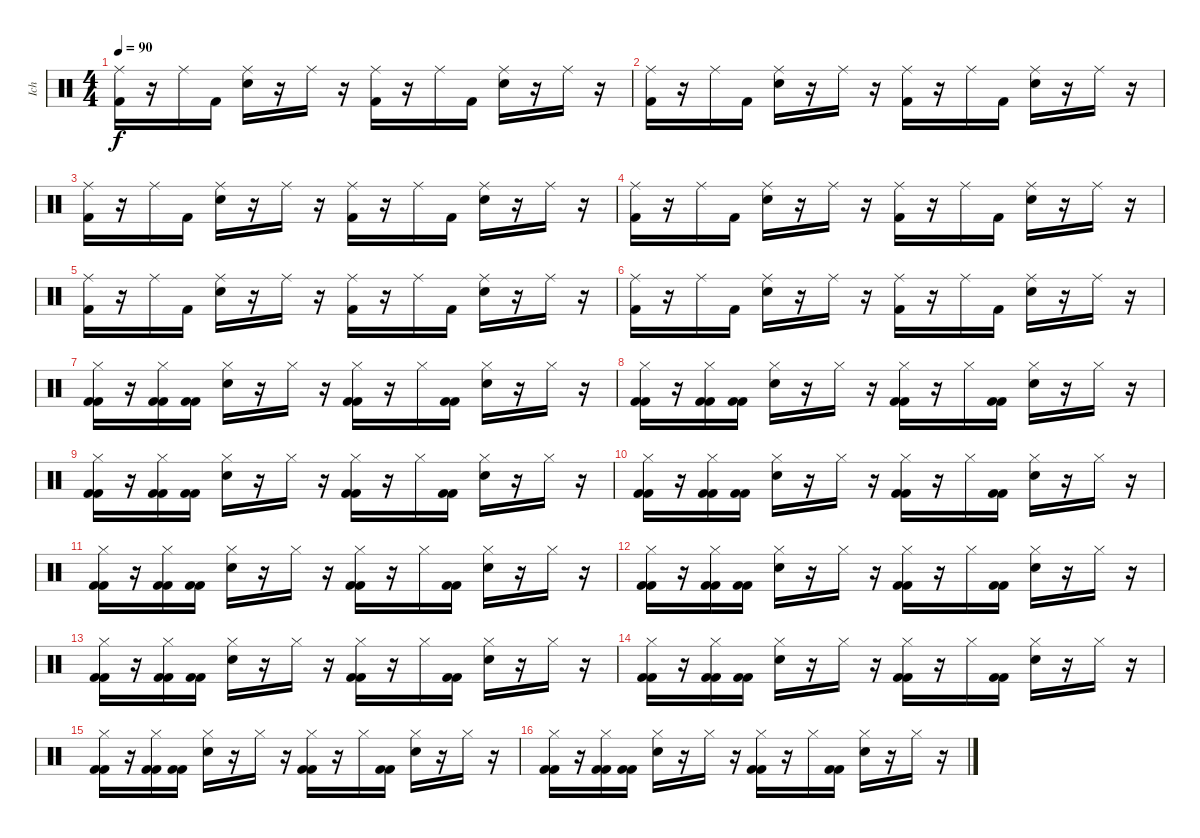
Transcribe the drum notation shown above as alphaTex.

\track ("Ich" "Ich") {instrument percussion}
\staff {score}
\articulation defaults
\ts (4 4)
\tempo 90
\clef neutral
\ks c
("Ride (middle)" "Kick (hit) 2").16{dy f} r.16 "Ride (middle)".16 "Kick (hit) 2".16 ("Ride (middle)" "Snare (hit) 2").16 r.16 "Ride (middle)".16 r.16 ("Ride (middle)" "Kick (hit) 2").16 r.16 "Ride (middle)".16 "Kick (hit) 2".16 ("Ride (middle)" "Snare (hit) 2").16 r.16 "Ride (middle)".16 r.16 |
("Ride (middle)" "Kick (hit) 2").16 r.16 "Ride (middle)".16 "Kick (hit) 2".16 ("Ride (middle)" "Snare (hit) 2").16 r.16 "Ride (middle)".16 r.16 ("Ride (middle)" "Kick (hit) 2").16 r.16 "Ride (middle)".16 "Kick (hit) 2".16 ("Ride (middle)" "Snare (hit) 2").16 r.16 "Ride (middle)".16 r.16 |
("Ride (middle)" "Kick (hit) 2").16 r.16 "Ride (middle)".16 "Kick (hit) 2".16 ("Ride (middle)" "Snare (hit) 2").16 r.16 "Ride (middle)".16 r.16 ("Ride (middle)" "Kick (hit) 2").16 r.16 "Ride (middle)".16 "Kick (hit) 2".16 ("Ride (middle)" "Snare (hit) 2").16 r.16 "Ride (middle)".16 r.16 |
("Ride (middle)" "Kick (hit) 2").16 r.16 "Ride (middle)".16 "Kick (hit) 2".16 ("Ride (middle)" "Snare (hit) 2").16 r.16 "Ride (middle)".16 r.16 ("Ride (middle)" "Kick (hit) 2").16 r.16 "Ride (middle)".16 "Kick (hit) 2".16 ("Ride (middle)" "Snare (hit) 2").16 r.16 "Ride (middle)".16 r.16 |
("Ride (middle)" "Kick (hit) 2").16 r.16 "Ride (middle)".16 "Kick (hit) 2".16 ("Ride (middle)" "Snare (hit) 2").16 r.16 "Ride (middle)".16 r.16 ("Ride (middle)" "Kick (hit) 2").16 r.16 "Ride (middle)".16 "Kick (hit) 2".16 ("Ride (middle)" "Snare (hit) 2").16 r.16 "Ride (middle)".16 r.16 |
("Ride (middle)" "Kick (hit) 2").16 r.16 "Ride (middle)".16 "Kick (hit) 2".16 ("Ride (middle)" "Snare (hit) 2").16 r.16 "Ride (middle)".16 r.16 ("Ride (middle)" "Kick (hit) 2").16 r.16 "Ride (middle)".16 "Kick (hit) 2".16 ("Ride (middle)" "Snare (hit) 2").16 r.16 "Ride (middle)".16 r.16 |
("Hi-Hat (closed)" "Kick (hit) 2" "Kick (hit) 2").16 r.16 ("Hi-Hat (closed)" "Kick (hit) 2" "Kick (hit) 2").16 ("Kick (hit) 2" "Kick (hit) 2").16 ("Hi-Hat (closed)" "Snare (hit) 2").16 r.16 "Hi-Hat (closed)".16 r.16 ("Hi-Hat (closed)" "Kick (hit) 2" "Kick (hit) 2").16 r.16 "Hi-Hat (closed)".16 ("Kick (hit) 2" "Kick (hit) 2").16 ("Hi-Hat (closed)" "Snare (hit) 2").16 r.16 "Hi-Hat (closed)".16 r.16 |
("Hi-Hat (closed)" "Kick (hit) 2" "Kick (hit) 2").16 r.16 ("Hi-Hat (closed)" "Kick (hit) 2" "Kick (hit) 2").16 ("Kick (hit) 2" "Kick (hit) 2").16 ("Hi-Hat (closed)" "Snare (hit) 2").16 r.16 "Hi-Hat (closed)".16 r.16 ("Hi-Hat (closed)" "Kick (hit) 2" "Kick (hit) 2").16 r.16 "Hi-Hat (closed)".16 ("Kick (hit) 2" "Kick (hit) 2").16 ("Hi-Hat (closed)" "Snare (hit) 2").16 r.16 "Hi-Hat (closed)".16 r.16 |
("Hi-Hat (closed)" "Kick (hit) 2" "Kick (hit) 2").16 r.16 ("Hi-Hat (closed)" "Kick (hit) 2" "Kick (hit) 2").16 ("Kick (hit) 2" "Kick (hit) 2").16 ("Hi-Hat (closed)" "Snare (hit) 2").16 r.16 "Hi-Hat (closed)".16 r.16 ("Hi-Hat (closed)" "Kick (hit) 2" "Kick (hit) 2").16 r.16 "Hi-Hat (closed)".16 ("Kick (hit) 2" "Kick (hit) 2").16 ("Hi-Hat (closed)" "Snare (hit) 2").16 r.16 "Hi-Hat (closed)".16 r.16 |
("Hi-Hat (closed)" "Kick (hit) 2" "Kick (hit) 2").16 r.16 ("Hi-Hat (closed)" "Kick (hit) 2" "Kick (hit) 2").16 ("Kick (hit) 2" "Kick (hit) 2").16 ("Hi-Hat (closed)" "Snare (hit) 2").16 r.16 "Hi-Hat (closed)".16 r.16 ("Hi-Hat (closed)" "Kick (hit) 2" "Kick (hit) 2").16 r.16 "Hi-Hat (closed)".16 ("Kick (hit) 2" "Kick (hit) 2").16 ("Hi-Hat (closed)" "Snare (hit) 2").16 r.16 "Hi-Hat (closed)".16 r.16 |
("Hi-Hat (closed)" "Kick (hit) 2" "Kick (hit) 2").16 r.16 ("Hi-Hat (closed)" "Kick (hit) 2" "Kick (hit) 2").16 ("Kick (hit) 2" "Kick (hit) 2").16 ("Hi-Hat (closed)" "Snare (hit) 2").16 r.16 "Hi-Hat (closed)".16 r.16 ("Hi-Hat (closed)" "Kick (hit) 2" "Kick (hit) 2").16 r.16 "Hi-Hat (closed)".16 ("Kick (hit) 2" "Kick (hit) 2").16 ("Hi-Hat (closed)" "Snare (hit) 2").16 r.16 "Hi-Hat (closed)".16 r.16 |
("Hi-Hat (closed)" "Kick (hit) 2" "Kick (hit) 2").16 r.16 ("Hi-Hat (closed)" "Kick (hit) 2" "Kick (hit) 2").16 ("Kick (hit) 2" "Kick (hit) 2").16 ("Hi-Hat (closed)" "Snare (hit) 2").16 r.16 "Hi-Hat (closed)".16 r.16 ("Hi-Hat (closed)" "Kick (hit) 2" "Kick (hit) 2").16 r.16 "Hi-Hat (closed)".16 ("Kick (hit) 2" "Kick (hit) 2").16 ("Hi-Hat (closed)" "Snare (hit) 2").16 r.16 "Hi-Hat (closed)".16 r.16 |
("Hi-Hat (closed)" "Kick (hit) 2" "Kick (hit) 2").16 r.16 ("Hi-Hat (closed)" "Kick (hit) 2" "Kick (hit) 2").16 ("Kick (hit) 2" "Kick (hit) 2").16 ("Hi-Hat (closed)" "Snare (hit) 2").16 r.16 "Hi-Hat (closed)".16 r.16 ("Hi-Hat (closed)" "Kick (hit) 2" "Kick (hit) 2").16 r.16 "Hi-Hat (closed)".16 ("Kick (hit) 2" "Kick (hit) 2").16 ("Hi-Hat (closed)" "Snare (hit) 2").16 r.16 "Hi-Hat (closed)".16 r.16 |
("Hi-Hat (closed)" "Kick (hit) 2" "Kick (hit) 2").16 r.16 ("Hi-Hat (closed)" "Kick (hit) 2" "Kick (hit) 2").16 ("Kick (hit) 2" "Kick (hit) 2").16 ("Hi-Hat (closed)" "Snare (hit) 2").16 r.16 "Hi-Hat (closed)".16 r.16 ("Hi-Hat (closed)" "Kick (hit) 2" "Kick (hit) 2").16 r.16 "Hi-Hat (closed)".16 ("Kick (hit) 2" "Kick (hit) 2").16 ("Hi-Hat (closed)" "Snare (hit) 2").16 r.16 "Hi-Hat (closed)".16 r.16 |
("Hi-Hat (closed)" "Kick (hit) 2" "Kick (hit) 2").16 r.16 ("Hi-Hat (closed)" "Kick (hit) 2" "Kick (hit) 2").16 ("Kick (hit) 2" "Kick (hit) 2").16 ("Hi-Hat (closed)" "Snare (hit) 2").16 r.16 "Hi-Hat (closed)".16 r.16 ("Hi-Hat (closed)" "Kick (hit) 2" "Kick (hit) 2").16 r.16 "Hi-Hat (closed)".16 ("Kick (hit) 2" "Kick (hit) 2").16 ("Hi-Hat (closed)" "Snare (hit) 2").16 r.16 "Hi-Hat (closed)".16 r.16 |
("Hi-Hat (closed)" "Kick (hit) 2" "Kick (hit) 2").16 r.16 ("Hi-Hat (closed)" "Kick (hit) 2" "Kick (hit) 2").16 ("Kick (hit) 2" "Kick (hit) 2").16 ("Hi-Hat (closed)" "Snare (hit) 2").16 r.16 "Hi-Hat (closed)".16 r.16 ("Hi-Hat (closed)" "Kick (hit) 2" "Kick (hit) 2").16 r.16 "Hi-Hat (closed)".16 ("Kick (hit) 2" "Kick (hit) 2").16 ("Hi-Hat (closed)" "Snare (hit) 2").16 r.16 "Hi-Hat (closed)".16 r.16
